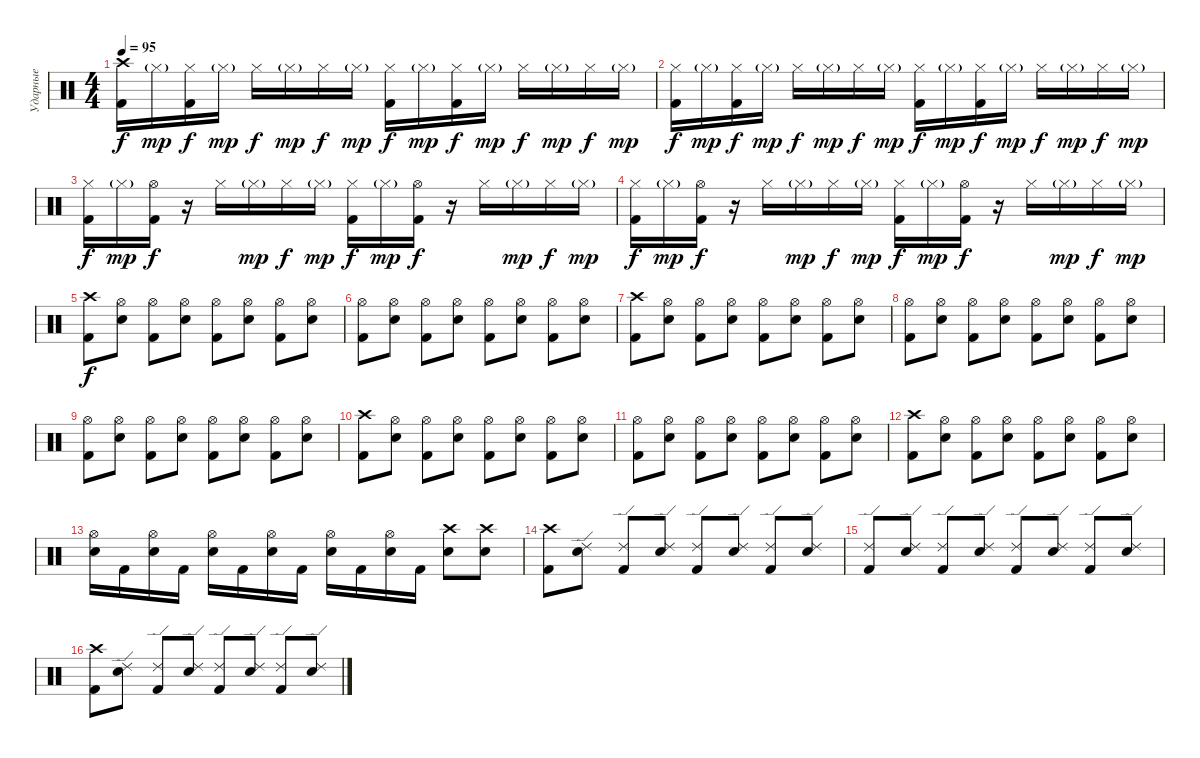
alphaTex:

\track ("Ударные" "Ударные") {instrument percussion}
\staff {score}
\articulation defaults
\ts (4 4)
\tempo 95
\clef neutral
\ks c
("Kick (hit) 2" "Crash high (hit)").16{dy f} "Hi-Hat (closed)"{g}.16{dy mp} ("Kick (hit) 2" "Hi-Hat (closed)").16{dy f} "Hi-Hat (closed)"{g}.16{dy mp} "Hi-Hat (closed)".16{dy f} "Hi-Hat (closed)"{g}.16{dy mp} "Hi-Hat (closed)".16{dy f} "Hi-Hat (closed)"{g}.16{dy mp} ("Kick (hit) 2" "Hi-Hat (closed)").16{dy f} "Hi-Hat (closed)"{g}.16{dy mp} ("Kick (hit) 2" "Hi-Hat (closed)").16{dy f} "Hi-Hat (closed)"{g}.16{dy mp} "Hi-Hat (closed)".16{dy f} "Hi-Hat (closed)"{g}.16{dy mp} "Hi-Hat (closed)".16{dy f} "Hi-Hat (closed)"{g}.16{dy mp} |
("Kick (hit) 2" "Hi-Hat (closed)").16{dy f} "Hi-Hat (closed)"{g}.16{dy mp} ("Kick (hit) 2" "Hi-Hat (closed)").16{dy f} "Hi-Hat (closed)"{g}.16{dy mp} "Hi-Hat (closed)".16{dy f} "Hi-Hat (closed)"{g}.16{dy mp} "Hi-Hat (closed)".16{dy f} "Hi-Hat (closed)"{g}.16{dy mp} ("Kick (hit) 2" "Hi-Hat (closed)").16{dy f} "Hi-Hat (closed)"{g}.16{dy mp} ("Kick (hit) 2" "Hi-Hat (closed)").16{dy f} "Hi-Hat (closed)"{g}.16{dy mp} "Hi-Hat (closed)".16{dy f} "Hi-Hat (closed)"{g}.16{dy mp} "Hi-Hat (closed)".16{dy f} "Hi-Hat (closed)"{g}.16{dy mp} |
("Kick (hit) 2" "Hi-Hat (closed)").16{dy f} "Hi-Hat (closed)"{g}.16{dy mp} ("Kick (hit) 2" "Hi-Hat (open)").16{dy f} r.16 "Hi-Hat (closed)".16 "Hi-Hat (closed)"{g}.16{dy mp} "Hi-Hat (closed)".16{dy f} "Hi-Hat (closed)"{g}.16{dy mp} ("Kick (hit) 2" "Hi-Hat (closed)").16{dy f} "Hi-Hat (closed)"{g}.16{dy mp} ("Kick (hit) 2" "Hi-Hat (open)").16{dy f} r.16 "Hi-Hat (closed)".16 "Hi-Hat (closed)"{g}.16{dy mp} "Hi-Hat (closed)".16{dy f} "Hi-Hat (closed)"{g}.16{dy mp} |
("Kick (hit) 2" "Hi-Hat (closed)").16{dy f} "Hi-Hat (closed)"{g}.16{dy mp} ("Kick (hit) 2" "Hi-Hat (open)").16{dy f} r.16 "Hi-Hat (closed)".16 "Hi-Hat (closed)"{g}.16{dy mp} "Hi-Hat (closed)".16{dy f} "Hi-Hat (closed)"{g}.16{dy mp} ("Kick (hit) 2" "Hi-Hat (closed)").16{dy f} "Hi-Hat (closed)"{g}.16{dy mp} ("Kick (hit) 2" "Hi-Hat (open)").16{dy f} r.16 "Hi-Hat (closed)".16 "Hi-Hat (closed)"{g}.16{dy mp} "Hi-Hat (closed)".16{dy f} "Hi-Hat (closed)"{g}.16{dy mp} |
("Kick (hit) 2" "Crash high (hit)").8{dy f} ("Electric Snare (hit)" "Hi-Hat (open)").8 ("Kick (hit) 2" "Hi-Hat (open)").8 ("Electric Snare (hit)" "Hi-Hat (open)").8 ("Kick (hit) 2" "Hi-Hat (open)").8 ("Electric Snare (hit)" "Hi-Hat (open)").8 ("Kick (hit) 2" "Hi-Hat (open)").8 ("Electric Snare (hit)" "Hi-Hat (open)").8 |
("Kick (hit) 2" "Hi-Hat (open)").8 ("Electric Snare (hit)" "Hi-Hat (open)").8 ("Kick (hit) 2" "Hi-Hat (open)").8 ("Electric Snare (hit)" "Hi-Hat (open)").8 ("Kick (hit) 2" "Hi-Hat (open)").8 ("Electric Snare (hit)" "Hi-Hat (open)").8 ("Kick (hit) 2" "Hi-Hat (open)").8 ("Electric Snare (hit)" "Hi-Hat (open)").8 |
("Kick (hit) 2" "Crash high (hit)").8 ("Electric Snare (hit)" "Hi-Hat (open)").8 ("Kick (hit) 2" "Hi-Hat (open)").8 ("Electric Snare (hit)" "Hi-Hat (open)").8 ("Kick (hit) 2" "Hi-Hat (open)").8 ("Electric Snare (hit)" "Hi-Hat (open)").8 ("Kick (hit) 2" "Hi-Hat (open)").8 ("Electric Snare (hit)" "Hi-Hat (open)").8 |
("Kick (hit) 2" "Hi-Hat (open)").8 ("Electric Snare (hit)" "Hi-Hat (open)").8 ("Kick (hit) 2" "Hi-Hat (open)").8 ("Electric Snare (hit)" "Hi-Hat (open)").8 ("Kick (hit) 2" "Hi-Hat (open)").8 ("Electric Snare (hit)" "Hi-Hat (open)").8 ("Kick (hit) 2" "Hi-Hat (open)").8 ("Electric Snare (hit)" "Hi-Hat (open)").8 |
("Kick (hit) 2" "Hi-Hat (open)").8 ("Electric Snare (hit)" "Hi-Hat (open)").8 ("Kick (hit) 2" "Hi-Hat (open)").8 ("Electric Snare (hit)" "Hi-Hat (open)").8 ("Kick (hit) 2" "Hi-Hat (open)").8 ("Electric Snare (hit)" "Hi-Hat (open)").8 ("Kick (hit) 2" "Hi-Hat (open)").8 ("Electric Snare (hit)" "Hi-Hat (open)").8 |
("Kick (hit) 2" "Crash high (hit)").8 ("Electric Snare (hit)" "Hi-Hat (open)").8 ("Kick (hit) 2" "Hi-Hat (open)").8 ("Electric Snare (hit)" "Hi-Hat (open)").8 ("Kick (hit) 2" "Hi-Hat (open)").8 ("Electric Snare (hit)" "Hi-Hat (open)").8 ("Kick (hit) 2" "Hi-Hat (open)").8 ("Electric Snare (hit)" "Hi-Hat (open)").8 |
("Kick (hit) 2" "Hi-Hat (open)").8 ("Electric Snare (hit)" "Hi-Hat (open)").8 ("Kick (hit) 2" "Hi-Hat (open)").8 ("Electric Snare (hit)" "Hi-Hat (open)").8 ("Kick (hit) 2" "Hi-Hat (open)").8 ("Electric Snare (hit)" "Hi-Hat (open)").8 ("Kick (hit) 2" "Hi-Hat (open)").8 ("Electric Snare (hit)" "Hi-Hat (open)").8 |
("Kick (hit) 2" "Crash high (hit)").8 ("Electric Snare (hit)" "Hi-Hat (open)").8 ("Kick (hit) 2" "Hi-Hat (open)").8 ("Electric Snare (hit)" "Hi-Hat (open)").8 ("Kick (hit) 2" "Hi-Hat (open)").8 ("Electric Snare (hit)" "Hi-Hat (open)").8 ("Kick (hit) 2" "Hi-Hat (open)").8 ("Electric Snare (hit)" "Hi-Hat (open)").8 |
("Electric Snare (hit)" "Hi-Hat (open)").16 "Kick (hit) 2".16 ("Electric Snare (hit)" "Hi-Hat (open)").16 "Kick (hit) 2".16 ("Electric Snare (hit)" "Hi-Hat (open)").16 "Kick (hit) 2".16 ("Electric Snare (hit)" "Hi-Hat (open)").16 "Kick (hit) 2".16 ("Electric Snare (hit)" "Hi-Hat (open)").16 "Kick (hit) 2".16 ("Electric Snare (hit)" "Hi-Hat (open)").16 "Kick (hit) 2".16 ("Electric Snare (hit)" "Crash high (hit)").8 ("Electric Snare (hit)" "Crash high (hit)").8 |
("Kick (hit) 2" "Crash high (hit)").8 ("Electric Snare (hit)" "Ride (edge) 2").8 ("Kick (hit) 2" "Ride (edge) 2").8 ("Electric Snare (hit)" "Ride (edge) 2").8 ("Kick (hit) 2" "Ride (edge) 2").8 ("Electric Snare (hit)" "Ride (edge) 2").8 ("Kick (hit) 2" "Ride (edge) 2").8 ("Electric Snare (hit)" "Ride (edge) 2").8 |
("Kick (hit) 2" "Ride (edge) 2").8 ("Electric Snare (hit)" "Ride (edge) 2").8 ("Kick (hit) 2" "Ride (edge) 2").8 ("Electric Snare (hit)" "Ride (edge) 2").8 ("Kick (hit) 2" "Ride (edge) 2").8 ("Electric Snare (hit)" "Ride (edge) 2").8 ("Kick (hit) 2" "Ride (edge) 2").8 ("Electric Snare (hit)" "Ride (edge) 2").8 |
("Kick (hit) 2" "Crash high (hit)").8 ("Electric Snare (hit)" "Ride (edge) 2").8 ("Kick (hit) 2" "Ride (edge) 2").8 ("Electric Snare (hit)" "Ride (edge) 2").8 ("Kick (hit) 2" "Ride (edge) 2").8 ("Electric Snare (hit)" "Ride (edge) 2").8 ("Kick (hit) 2" "Ride (edge) 2").8 ("Electric Snare (hit)" "Ride (edge) 2").8
